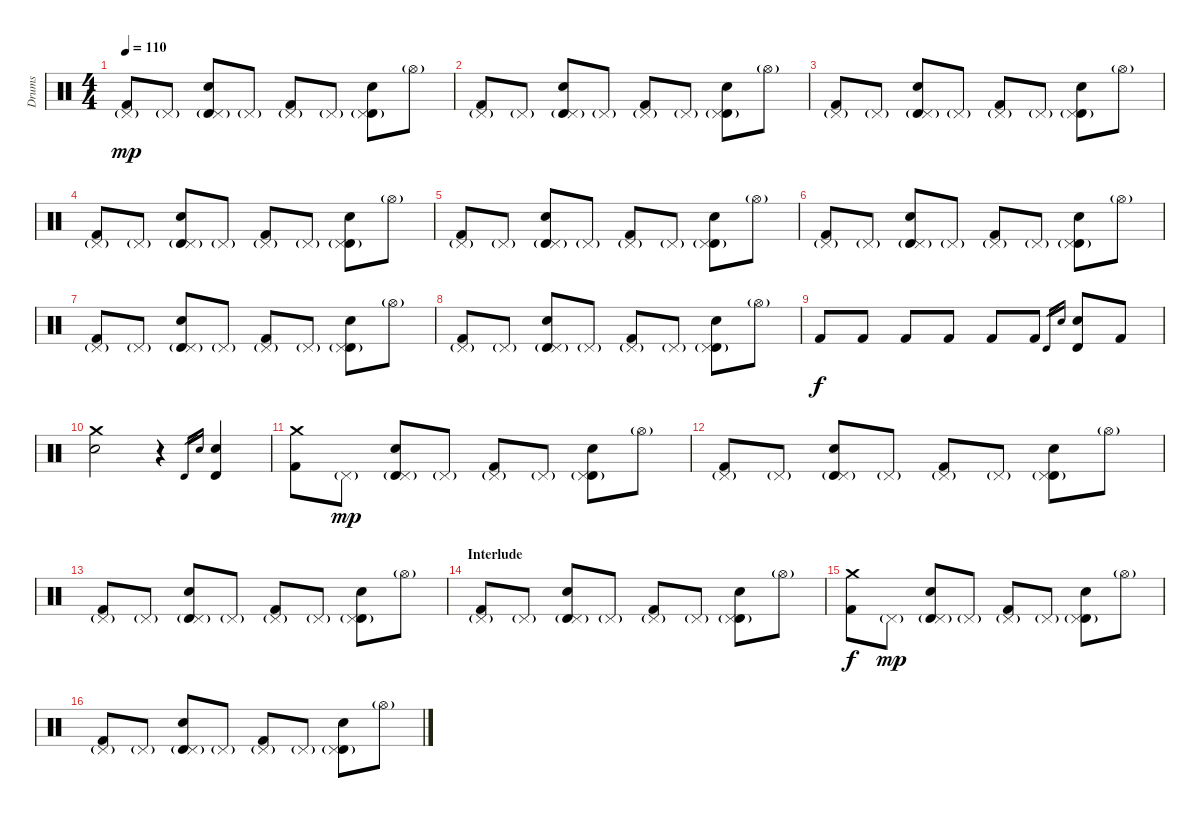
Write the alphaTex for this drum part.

\track ("Drums" "Drums") {instrument percussion}
\staff {score}
\articulation defaults
\ts (4 4)
\tempo 110
\clef neutral
\ks c
("Kick (hit) 2" "Pedal Hi-Hat (hit)"{g}).8{dy mp} "Pedal Hi-Hat (hit)"{g}.8 ("Timbale high (hit)" "Electric Snare (hit)" "Pedal Hi-Hat (hit)"{g}).8 "Pedal Hi-Hat (hit)"{g}.8 ("Kick (hit) 2" "Pedal Hi-Hat (hit)"{g}).8 "Pedal Hi-Hat (hit)"{g}.8 ("Timbale high (hit)" "Electric Snare (hit)" "Pedal Hi-Hat (hit)"{g}).8 "Hi-Hat (open)"{g}.8 |
("Kick (hit) 2" "Pedal Hi-Hat (hit)"{g}).8 "Pedal Hi-Hat (hit)"{g}.8 ("Timbale high (hit)" "Electric Snare (hit)" "Pedal Hi-Hat (hit)"{g}).8 "Pedal Hi-Hat (hit)"{g}.8 ("Kick (hit) 2" "Pedal Hi-Hat (hit)"{g}).8 "Pedal Hi-Hat (hit)"{g}.8 ("Timbale high (hit)" "Electric Snare (hit)" "Pedal Hi-Hat (hit)"{g}).8 "Hi-Hat (open)"{g}.8 |
("Kick (hit) 2" "Pedal Hi-Hat (hit)"{g}).8 "Pedal Hi-Hat (hit)"{g}.8 ("Timbale high (hit)" "Electric Snare (hit)" "Pedal Hi-Hat (hit)"{g}).8 "Pedal Hi-Hat (hit)"{g}.8 ("Kick (hit) 2" "Pedal Hi-Hat (hit)"{g}).8 "Pedal Hi-Hat (hit)"{g}.8 ("Timbale high (hit)" "Electric Snare (hit)" "Pedal Hi-Hat (hit)"{g}).8 "Hi-Hat (open)"{g}.8 |
("Kick (hit) 2" "Pedal Hi-Hat (hit)"{g}).8 "Pedal Hi-Hat (hit)"{g}.8 ("Timbale high (hit)" "Electric Snare (hit)" "Pedal Hi-Hat (hit)"{g}).8 "Pedal Hi-Hat (hit)"{g}.8 ("Kick (hit) 2" "Pedal Hi-Hat (hit)"{g}).8 "Pedal Hi-Hat (hit)"{g}.8 ("Timbale high (hit)" "Electric Snare (hit)" "Pedal Hi-Hat (hit)"{g}).8 "Hi-Hat (open)"{g}.8 |
\section ("" "")
("Kick (hit) 2" "Pedal Hi-Hat (hit)"{g}).8 "Pedal Hi-Hat (hit)"{g}.8 ("Timbale high (hit)" "Electric Snare (hit)" "Pedal Hi-Hat (hit)"{g}).8 "Pedal Hi-Hat (hit)"{g}.8 ("Kick (hit) 2" "Pedal Hi-Hat (hit)"{g}).8 "Pedal Hi-Hat (hit)"{g}.8 ("Timbale high (hit)" "Electric Snare (hit)" "Pedal Hi-Hat (hit)"{g}).8 "Hi-Hat (open)"{g}.8 |
("Kick (hit) 2" "Pedal Hi-Hat (hit)"{g}).8 "Pedal Hi-Hat (hit)"{g}.8 ("Timbale high (hit)" "Electric Snare (hit)" "Pedal Hi-Hat (hit)"{g}).8 "Pedal Hi-Hat (hit)"{g}.8 ("Kick (hit) 2" "Pedal Hi-Hat (hit)"{g}).8 "Pedal Hi-Hat (hit)"{g}.8 ("Timbale high (hit)" "Electric Snare (hit)" "Pedal Hi-Hat (hit)"{g}).8 "Hi-Hat (open)"{g}.8 |
("Kick (hit) 2" "Pedal Hi-Hat (hit)"{g}).8 "Pedal Hi-Hat (hit)"{g}.8 ("Timbale high (hit)" "Electric Snare (hit)" "Pedal Hi-Hat (hit)"{g}).8 "Pedal Hi-Hat (hit)"{g}.8 ("Kick (hit) 2" "Pedal Hi-Hat (hit)"{g}).8 "Pedal Hi-Hat (hit)"{g}.8 ("Timbale high (hit)" "Electric Snare (hit)" "Pedal Hi-Hat (hit)"{g}).8 "Hi-Hat (open)"{g}.8 |
("Kick (hit) 2" "Pedal Hi-Hat (hit)"{g}).8 "Pedal Hi-Hat (hit)"{g}.8 ("Timbale high (hit)" "Electric Snare (hit)" "Pedal Hi-Hat (hit)"{g}).8 "Pedal Hi-Hat (hit)"{g}.8 ("Kick (hit) 2" "Pedal Hi-Hat (hit)"{g}).8 "Pedal Hi-Hat (hit)"{g}.8 ("Timbale high (hit)" "Electric Snare (hit)" "Pedal Hi-Hat (hit)"{g}).8 "Hi-Hat (open)"{g}.8 |
"Kick (hit) 2".8{dy f} "Kick (hit) 2".8 "Kick (hit) 2".8 "Kick (hit) 2".8 "Kick (hit) 2".8 "Kick (hit) 2".8 "Timbale high (hit)".16{gr} "Electric Snare (hit)".16{gr} ("Timbale high (hit)" "Electric Snare (hit)").8 "Kick (hit) 2".8 |
("Electric Snare (hit)" "Crash medium (hit)").2 r.4 "Timbale high (hit)".16{gr} "Electric Snare (hit)".16{gr} ("Timbale high (hit)" "Electric Snare (hit)").4 |
("Kick (hit) 2" "Crash medium (hit)").8 "Pedal Hi-Hat (hit)"{g}.8{dy mp} ("Timbale high (hit)" "Electric Snare (hit)" "Pedal Hi-Hat (hit)"{g}).8 "Pedal Hi-Hat (hit)"{g}.8 ("Kick (hit) 2" "Pedal Hi-Hat (hit)"{g}).8 "Pedal Hi-Hat (hit)"{g}.8 ("Timbale high (hit)" "Electric Snare (hit)" "Pedal Hi-Hat (hit)"{g}).8 "Hi-Hat (open)"{g}.8 |
("Kick (hit) 2" "Pedal Hi-Hat (hit)"{g}).8 "Pedal Hi-Hat (hit)"{g}.8 ("Timbale high (hit)" "Electric Snare (hit)" "Pedal Hi-Hat (hit)"{g}).8 "Pedal Hi-Hat (hit)"{g}.8 ("Kick (hit) 2" "Pedal Hi-Hat (hit)"{g}).8 "Pedal Hi-Hat (hit)"{g}.8 ("Timbale high (hit)" "Electric Snare (hit)" "Pedal Hi-Hat (hit)"{g}).8 "Hi-Hat (open)"{g}.8 |
("Kick (hit) 2" "Pedal Hi-Hat (hit)"{g}).8 "Pedal Hi-Hat (hit)"{g}.8 ("Timbale high (hit)" "Electric Snare (hit)" "Pedal Hi-Hat (hit)"{g}).8 "Pedal Hi-Hat (hit)"{g}.8 ("Kick (hit) 2" "Pedal Hi-Hat (hit)"{g}).8 "Pedal Hi-Hat (hit)"{g}.8 ("Timbale high (hit)" "Electric Snare (hit)" "Pedal Hi-Hat (hit)"{g}).8 "Hi-Hat (open)"{g}.8 |
\section ("" "Interlude")
("Kick (hit) 2" "Pedal Hi-Hat (hit)"{g}).8 "Pedal Hi-Hat (hit)"{g}.8 ("Timbale high (hit)" "Electric Snare (hit)" "Pedal Hi-Hat (hit)"{g}).8 "Pedal Hi-Hat (hit)"{g}.8 ("Kick (hit) 2" "Pedal Hi-Hat (hit)"{g}).8 "Pedal Hi-Hat (hit)"{g}.8 ("Timbale high (hit)" "Electric Snare (hit)" "Pedal Hi-Hat (hit)"{g}).8 "Hi-Hat (open)"{g}.8 |
("Kick (hit) 2" "Crash medium (hit)").8{dy f} "Pedal Hi-Hat (hit)"{g}.8{dy mp} ("Timbale high (hit)" "Electric Snare (hit)" "Pedal Hi-Hat (hit)"{g}).8 "Pedal Hi-Hat (hit)"{g}.8 ("Kick (hit) 2" "Pedal Hi-Hat (hit)"{g}).8 "Pedal Hi-Hat (hit)"{g}.8 ("Timbale high (hit)" "Electric Snare (hit)" "Pedal Hi-Hat (hit)"{g}).8 "Hi-Hat (open)"{g}.8 |
("Kick (hit) 2" "Pedal Hi-Hat (hit)"{g}).8 "Pedal Hi-Hat (hit)"{g}.8 ("Timbale high (hit)" "Electric Snare (hit)" "Pedal Hi-Hat (hit)"{g}).8 "Pedal Hi-Hat (hit)"{g}.8 ("Kick (hit) 2" "Pedal Hi-Hat (hit)"{g}).8 "Pedal Hi-Hat (hit)"{g}.8 ("Timbale high (hit)" "Electric Snare (hit)" "Pedal Hi-Hat (hit)"{g}).8 "Hi-Hat (open)"{g}.8
